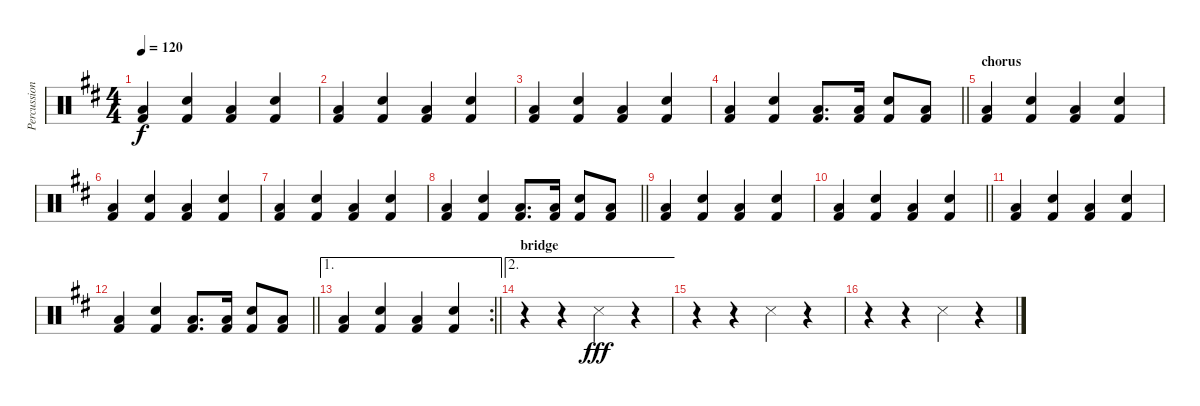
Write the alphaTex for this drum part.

\track ("Percussion" "Percussion") {instrument percussion}
\staff {score}
\articulation defaults
\ts (4 4)
\tempo 120
\clef neutral
\ks bminor
("Kick (hit) 2" "Low Floor Tom (hit)").4{dy f} ("Kick (hit) 2" "Snare (hit) 2").4 ("Kick (hit) 2" "Low Floor Tom (hit)").4 ("Kick (hit) 2" "Snare (hit) 2").4 |
("Kick (hit) 2" "Low Floor Tom (hit)").4 ("Kick (hit) 2" "Snare (hit) 2").4 ("Kick (hit) 2" "Low Floor Tom (hit)").4 ("Kick (hit) 2" "Snare (hit) 2").4 |
("Kick (hit) 2" "Low Floor Tom (hit)").4 ("Kick (hit) 2" "Snare (hit) 2").4 ("Kick (hit) 2" "Low Floor Tom (hit)").4 ("Kick (hit) 2" "Snare (hit) 2").4 |
\barLineRight lightlight
("Kick (hit) 2" "Low Floor Tom (hit)").4 ("Kick (hit) 2" "Snare (hit) 2").4 ("Kick (hit) 2" "Low Floor Tom (hit)").8{d} ("Kick (hit) 2" "Low Floor Tom (hit)").16 ("Kick (hit) 2" "Snare (hit) 2").8 ("Kick (hit) 2" "Low Floor Tom (hit)").8 |
\section ("" "chorus")
("Kick (hit) 2" "Low Floor Tom (hit)").4 ("Kick (hit) 2" "Snare (hit) 2").4 ("Kick (hit) 2" "Low Floor Tom (hit)").4 ("Kick (hit) 2" "Snare (hit) 2").4 |
("Kick (hit) 2" "Low Floor Tom (hit)").4 ("Kick (hit) 2" "Snare (hit) 2").4 ("Kick (hit) 2" "Low Floor Tom (hit)").4 ("Kick (hit) 2" "Snare (hit) 2").4 |
("Kick (hit) 2" "Low Floor Tom (hit)").4 ("Kick (hit) 2" "Snare (hit) 2").4 ("Kick (hit) 2" "Low Floor Tom (hit)").4 ("Kick (hit) 2" "Snare (hit) 2").4 |
\barLineRight lightlight
("Kick (hit) 2" "Low Floor Tom (hit)").4 ("Kick (hit) 2" "Snare (hit) 2").4 ("Kick (hit) 2" "Low Floor Tom (hit)").8{d} ("Kick (hit) 2" "Low Floor Tom (hit)").16 ("Kick (hit) 2" "Snare (hit) 2").8 ("Kick (hit) 2" "Low Floor Tom (hit)").8 |
("Kick (hit) 2" "Low Floor Tom (hit)").4 ("Kick (hit) 2" "Snare (hit) 2").4 ("Kick (hit) 2" "Low Floor Tom (hit)").4 ("Kick (hit) 2" "Snare (hit) 2").4 |
\barLineRight lightlight
("Kick (hit) 2" "Low Floor Tom (hit)").4 ("Kick (hit) 2" "Snare (hit) 2").4 ("Kick (hit) 2" "Low Floor Tom (hit)").4 ("Kick (hit) 2" "Snare (hit) 2").4 |
("Kick (hit) 2" "Low Floor Tom (hit)").4 ("Kick (hit) 2" "Snare (hit) 2").4 ("Kick (hit) 2" "Low Floor Tom (hit)").4 ("Kick (hit) 2" "Snare (hit) 2").4 |
\barLineRight lightlight
("Kick (hit) 2" "Low Floor Tom (hit)").4 ("Kick (hit) 2" "Snare (hit) 2").4 ("Kick (hit) 2" "Low Floor Tom (hit)").8{d} ("Kick (hit) 2" "Low Floor Tom (hit)").16 ("Kick (hit) 2" "Snare (hit) 2").8 ("Kick (hit) 2" "Low Floor Tom (hit)").8 |
\ae 1
\rc 2
\barLineRight lightlight
("Kick (hit) 2" "Low Floor Tom (hit)").4 ("Kick (hit) 2" "Snare (hit) 2").4 ("Kick (hit) 2" "Low Floor Tom (hit)").4 ("Kick (hit) 2" "Snare (hit) 2").4 |
\ae 2
\section ("" "bridge")
r.4 r.4 "Snare (side stick) 3".4{dy fff} r.4 |
r.4 r.4 "Snare (side stick) 3".4 r.4 |
r.4 r.4 "Snare (side stick) 3".4 r.4
